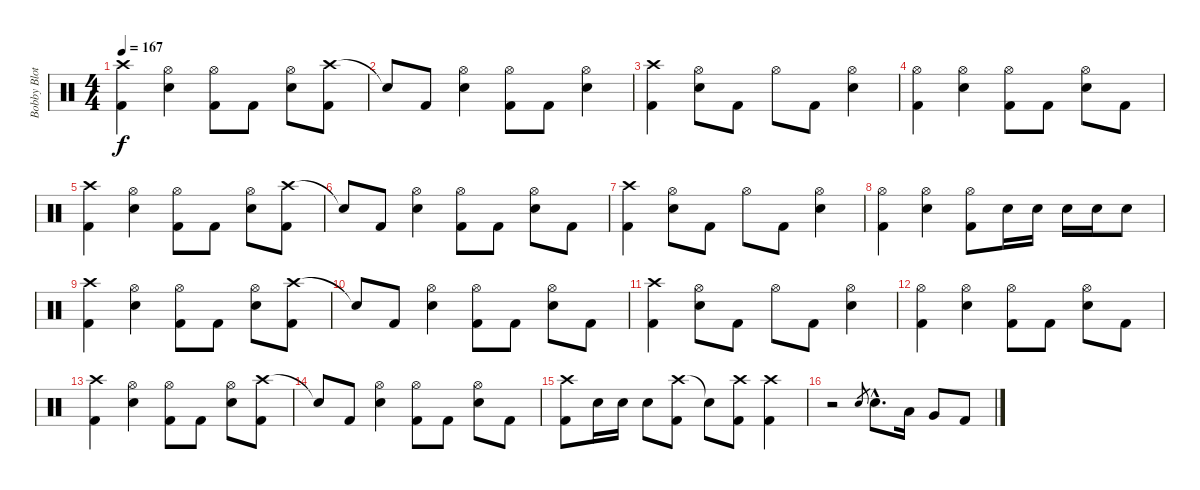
\track ("Bobby Blotzer" "Bobby Blot") {instrument percussion}
\staff {score}
\articulation defaults
\ts (4 4)
\tempo 167
\clef neutral
\ks c
("Crash high (hit)" "Kick (hit) 2").4{dy f} ("Hi-Hat (open)" "Electric Snare (hit)").4 ("Hi-Hat (open)" "Kick (hit) 2").8 "Kick (hit) 2".8 ("Hi-Hat (open)" "Electric Snare (hit)").8 ("Crash high (hit)" "Kick (hit) 2").8 |
"Snare (hit)"{t}.8 "Kick (hit) 2".8 ("Hi-Hat (open)" "Electric Snare (hit)").4 ("Hi-Hat (open)" "Kick (hit) 2").8 "Kick (hit) 2".8 ("Hi-Hat (open)" "Electric Snare (hit)").4 |
("Crash high (hit)" "Kick (hit) 2").4 ("Hi-Hat (open)" "Electric Snare (hit)").8 "Kick (hit) 2".8 "Hi-Hat (open)".8 "Kick (hit) 2".8 ("Hi-Hat (open)" "Electric Snare (hit)").4 |
("Hi-Hat (open)" "Kick (hit) 2").4 ("Hi-Hat (open)" "Electric Snare (hit)").4 ("Hi-Hat (open)" "Kick (hit) 2").8 "Kick (hit) 2".8 ("Hi-Hat (open)" "Electric Snare (hit)").8 "Kick (hit) 2".8 |
("Crash high (hit)" "Kick (hit) 2").4 ("Hi-Hat (open)" "Electric Snare (hit)").4 ("Hi-Hat (open)" "Kick (hit) 2").8 "Kick (hit) 2".8 ("Hi-Hat (open)" "Electric Snare (hit)").8 ("Crash high (hit)" "Kick (hit) 2").8 |
"Snare (hit)"{t}.8 "Kick (hit) 2".8 ("Hi-Hat (open)" "Electric Snare (hit)").4 ("Hi-Hat (open)" "Kick (hit) 2").8 "Kick (hit) 2".8 ("Hi-Hat (open)" "Electric Snare (hit)").8 "Kick (hit) 2".8 |
("Crash high (hit)" "Kick (hit) 2").4 ("Hi-Hat (open)" "Electric Snare (hit)").8 "Kick (hit) 2".8 "Hi-Hat (open)".8 "Kick (hit) 2".8 ("Hi-Hat (open)" "Electric Snare (hit)").4 |
("Hi-Hat (open)" "Kick (hit) 2").4 ("Hi-Hat (open)" "Electric Snare (hit)").4 ("Hi-Hat (open)" "Kick (hit) 2").8 "Electric Snare (hit)".16 "Electric Snare (hit)".16 "Electric Snare (hit)".16 "Electric Snare (hit)".16 "Electric Snare (hit)".8 |
("Crash high (hit)" "Kick (hit) 2").4 ("Hi-Hat (open)" "Electric Snare (hit)").4 ("Hi-Hat (open)" "Kick (hit) 2").8 "Kick (hit) 2".8 ("Hi-Hat (open)" "Electric Snare (hit)").8 ("Crash high (hit)" "Kick (hit) 2").8 |
"Snare (hit)"{t}.8 "Kick (hit) 2".8 ("Hi-Hat (open)" "Electric Snare (hit)").4 ("Hi-Hat (open)" "Kick (hit) 2").8 "Kick (hit) 2".8 ("Hi-Hat (open)" "Electric Snare (hit)").8 "Kick (hit) 2".8 |
("Crash high (hit)" "Kick (hit) 2").4 ("Hi-Hat (open)" "Electric Snare (hit)").8 "Kick (hit) 2".8 "Hi-Hat (open)".8 "Kick (hit) 2".8 ("Hi-Hat (open)" "Electric Snare (hit)").4 |
("Hi-Hat (open)" "Kick (hit) 2").4 ("Hi-Hat (open)" "Electric Snare (hit)").4 ("Hi-Hat (open)" "Kick (hit) 2").8 "Kick (hit) 2".8 ("Hi-Hat (open)" "Electric Snare (hit)").8 "Kick (hit) 2".8 |
("Crash high (hit)" "Kick (hit) 2").4 ("Hi-Hat (open)" "Electric Snare (hit)").4 ("Hi-Hat (open)" "Kick (hit) 2").8 "Kick (hit) 2".8 ("Hi-Hat (open)" "Electric Snare (hit)").8 ("Crash high (hit)" "Kick (hit) 2").8 |
"Snare (hit)"{t}.8 "Kick (hit) 2".8 ("Hi-Hat (open)" "Electric Snare (hit)").4 ("Hi-Hat (open)" "Kick (hit) 2").8 "Kick (hit) 2".8 ("Hi-Hat (open)" "Electric Snare (hit)").8 "Kick (hit) 2".8 |
("Crash high (hit)" "Kick (hit) 2").8 "Electric Snare (hit)".16 "Electric Snare (hit)".16 "Electric Snare (hit)".8 ("Crash high (hit)" "Kick (hit) 2").8 "Snare (hit)"{t}.8 ("Crash high (hit)" "Kick (hit) 2").8 ("Crash high (hit)" "Kick (hit) 2").4 |
r.2 "Electric Snare (hit)".8{gr} "Electric Snare (hit)"{hac}.8{d} "Low Tom (hit)".16 "Very Low Tom (hit)".8 "Kick (hit) 2".8
